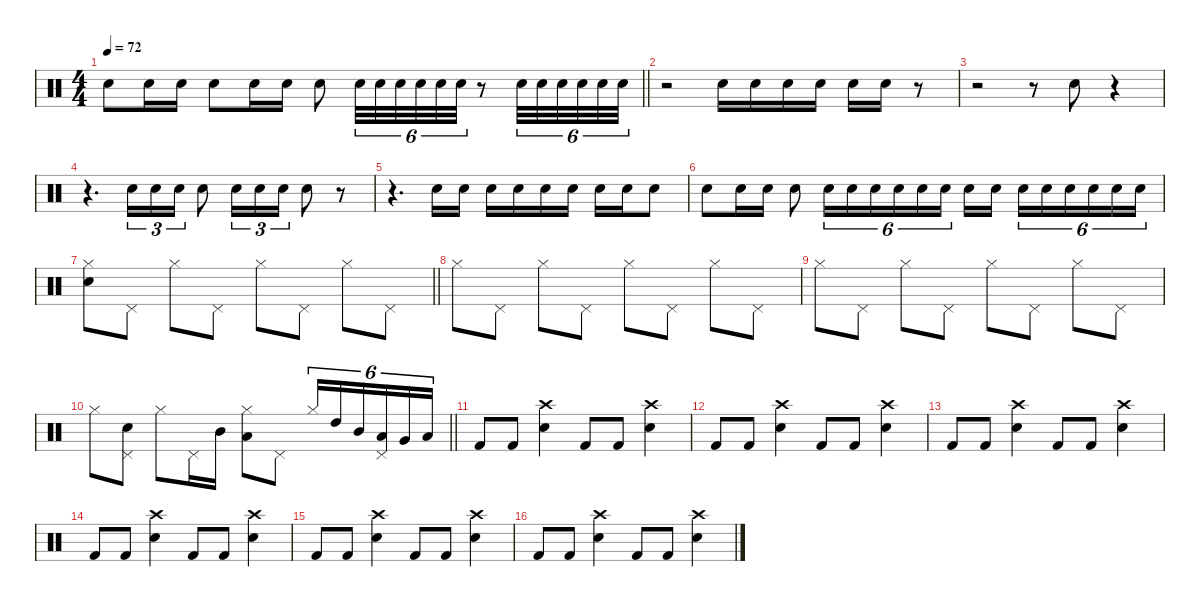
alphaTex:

\defaultSystemsLayout 4
\hideDynamics
\bracketExtendMode nobrackets
\singleTrackTrackNamePolicy hidden
\multiTrackTrackNamePolicy hidden
\otherSystemsTrackNameOrientation horizontal
\track ("Drums" "drm.") {defaultSystemsLayout 4 instrument percussion}
\staff {score}
\articulation defaults
\ts (4 4)
\tempo 72
\clef neutral
\barLineRight lightlight
\ks c "Snare (hit) 2".8{dy mp beam Down} "Snare (hit) 2".16{beam Down} "Snare (hit) 2".16{dy pp beam Down} "Snare (hit) 2".8{beam Down} "Snare (hit) 2".16{beam Down} "Snare (hit) 2".16{beam Down} "Snare (hit) 2".8{beam Down} "Snare (hit) 2".32{tu (6 4) dy p beam Down} "Snare (hit) 2".32{tu (6 4) beam Down} "Snare (hit) 2".32{tu (6 4) beam Down} "Snare (hit) 2".32{tu (6 4) beam Down} "Snare (hit) 2".32{tu (6 4) dy mp beam Down} "Snare (hit) 2".32{tu (6 4) beam Down}
r.8{beam Down} "Snare (hit) 2".32{tu (6 4) beam Down} "Snare (hit) 2".32{tu (6 4) beam Down} "Snare (hit) 2".32{tu (6 4) beam Down} "Snare (hit) 2".32{tu (6 4) beam Down} "Snare (hit) 2".32{tu (6 4) dy mf beam Down} "Snare (hit) 2".32{tu (6 4) beam Down} |
r.2{beam Down} "Snare (hit) 2".16{dy mp beam Down} "Snare (hit) 2".16{dy mf beam Down} "Snare (hit) 2".16{beam Down} "Snare (hit) 2".16{beam Down} "Snare (hit) 2".16{beam Down} "Snare (hit) 2".16{dy f beam Down} r.8{beam Down} |
r.2{beam Down} r.8{beam Down} "Snare (hit) 2".8{dy mf beam Down} r.4{beam Down} |
r.4{d beam Down} "Snare (hit) 2".16{tu (3 2) dy mp beam Down} "Snare (hit) 2".16{tu (3 2) beam Down} "Snare (hit) 2".16{tu (3 2) beam Down} "Snare (hit) 2".8{beam Down} "Snare (hit) 2".16{tu (3 2) dy mf beam Down} "Snare (hit) 2".16{tu (3 2) beam Down} "Snare (hit) 2".16{tu (3 2) beam Down} "Snare (hit) 2".8{beam Down} r.8{beam Down} |
r.4{d beam Down} "Snare (hit) 2".16{dy p beam Down} "Snare (hit) 2".16{beam Down} "Snare (hit) 2".16{dy mp beam Down} "Snare (hit) 2".16{beam Down} "Snare (hit) 2".16{beam Down} "Snare (hit) 2".16{dy mf beam Down} "Snare (hit) 2".16{beam Down} "Snare (hit) 2".16{beam Down} "Snare (hit) 2".8{beam Down} |
"Snare (hit) 2".8{dy f beam Down} "Snare (hit) 2".16{dy p beam Down} "Snare (hit) 2".16{dy pp beam Down} "Snare (hit) 2".8{dy p beam Down} "Snare (hit) 2".16{tu (6 4) dy ppp beam Down} "Snare (hit) 2".16{tu (6 4) dy pp beam Down} "Snare (hit) 2".16{tu (6 4) beam Down} "Snare (hit) 2".16{tu (6 4) beam Down} "Snare (hit) 2".16{tu (6 4) dy p beam Down} "Snare (hit) 2".16{tu (6 4) beam Down} "Snare (hit) 2".16{dy mp beam Down} "Snare (hit) 2".16{dy pp beam Down} "Snare (hit) 2".16{tu (6 4) dy p beam Down} "Snare (hit) 2".16{tu (6 4) beam Down} "Snare (hit) 2".16{tu (6 4) beam Down} "Snare (hit) 2".16{tu (6 4) dy mp beam Down} "Snare (hit) 2".16{tu (6 4) beam Down} "Snare (hit) 2".16{tu (6 4) dy mf beam Down} |
\barLineRight lightlight
("Snare (hit) 2" "Hi-Hat (closed)").8{dy f beam Down} "Pedal Hi-Hat (hit)".8{dy mf beam Down} "Hi-Hat (closed)".8{dy mp beam Down} "Pedal Hi-Hat (hit)".8{dy mf beam Down} "Hi-Hat (closed)".8{dy mp beam Down} "Pedal Hi-Hat (hit)".8{dy mf beam Down} "Hi-Hat (closed)".8{dy mp beam Down} "Pedal Hi-Hat (hit)".8{beam Down} |
"Hi-Hat (closed)".8{dy f beam Down} "Pedal Hi-Hat (hit)".8{dy mf beam Down} "Hi-Hat (closed)".8{beam Down} "Pedal Hi-Hat (hit)".8{beam Down} "Hi-Hat (closed)".8{beam Down} "Pedal Hi-Hat (hit)".8{beam Down} "Hi-Hat (closed)".8{dy mp beam Down} "Pedal Hi-Hat (hit)".8{beam Down} |
"Hi-Hat (closed)".8{dy f beam Down} "Pedal Hi-Hat (hit)".8{dy mf beam Down} "Hi-Hat (closed)".8{dy mp beam Down} "Pedal Hi-Hat (hit)".8{beam Down} "Hi-Hat (closed)".8{beam Down} "Pedal Hi-Hat (hit)".8{dy mf beam Down} "Hi-Hat (closed)".8{beam Down} "Pedal Hi-Hat (hit)".8{beam Down} |
\barLineRight lightlight "Hi-Hat (closed)".8{dy f beam Down}
("Snare (hit) 2" "Pedal Hi-Hat (hit)").8{dy fff beam Down} "Hi-Hat (closed)".8{dy mp beam Down} "Pedal Hi-Hat (hit)".16{dy mf beam Down} "Mid Tom (hit)".16{dy fff beam Down} ("Low Tom (hit)" "Hi-Hat (closed)").8{beam Down} "Pedal Hi-Hat (hit)".8{dy mf beam Down} "Hi-Hat (closed)".16{tu (6 4) dy mp beam Up} "High Tom (hit)".16{tu (6 4) dy mf beam Up} "Mid Tom (hit)".16{tu (6 4) dy f beam Up} ("Low Tom (hit)" "Pedal Hi-Hat (hit)").16{tu (6 4) beam Up} "Very Low Tom (hit)".16{tu (6 4) dy ff beam Up} "Low Floor Tom (hit)".16{tu (6 4) beam Up} |
"Kick (hit) 2".8{dy f beam Up} "Kick (hit) 2".8{dy fff beam Up} ("Snare (hit) 2" "Crash high (hit)").4{beam Down} "Kick (hit) 2".8{beam Up} "Kick (hit) 2".8{beam Up} ("Snare (hit) 2" "Crash high (hit)").4{beam Down} |
"Kick (hit) 2".8{dy f beam Up} "Kick (hit) 2".8{dy fff beam Up} ("Snare (hit) 2" "Crash high (hit)").4{beam Down} "Kick (hit) 2".8{beam Up} "Kick (hit) 2".8{beam Up} ("Snare (hit) 2" "Crash high (hit)").4{beam Down} |
"Kick (hit) 2".8{dy f beam Up} "Kick (hit) 2".8{dy fff beam Up} ("Snare (hit) 2" "Crash high (hit)").4{beam Down} "Kick (hit) 2".8{beam Up} "Kick (hit) 2".8{beam Up} ("Snare (hit) 2" "Crash high (hit)").4{beam Down} |
"Kick (hit) 2".8{dy f beam Up} "Kick (hit) 2".8{dy fff beam Up} ("Snare (hit) 2" "Crash high (hit)").4{beam Down} "Kick (hit) 2".8{beam Up} "Kick (hit) 2".8{beam Up} ("Snare (hit) 2" "Crash high (hit)").4{beam Down} |
"Kick (hit) 2".8{dy f beam Up} "Kick (hit) 2".8{dy fff beam Up} ("Snare (hit) 2" "Crash high (hit)").4{beam Down} "Kick (hit) 2".8{beam Up} "Kick (hit) 2".8{beam Up} ("Snare (hit) 2" "Crash high (hit)").4{beam Down} |
"Kick (hit) 2".8{dy f beam Up} "Kick (hit) 2".8{dy fff beam Up} ("Snare (hit) 2" "Crash high (hit)").4{beam Down} "Kick (hit) 2".8{beam Up} "Kick (hit) 2".8{beam Up} ("Snare (hit) 2" "Crash high (hit)").4{beam Down}
